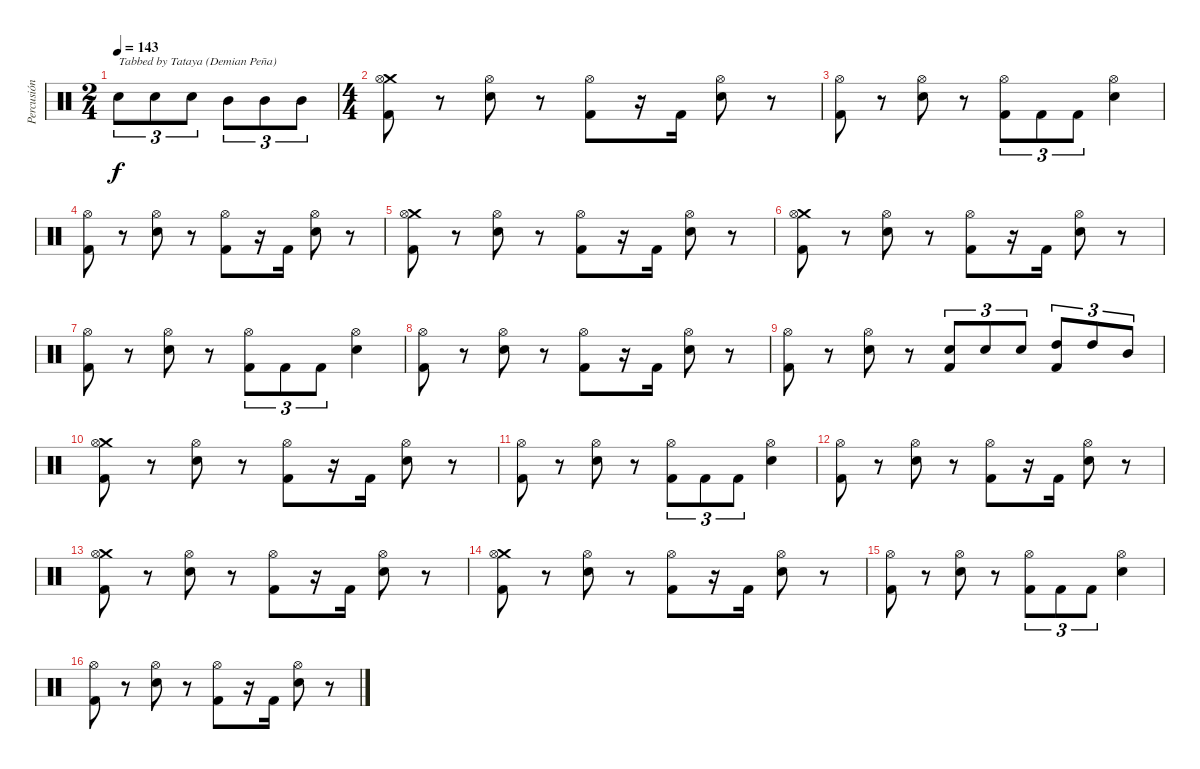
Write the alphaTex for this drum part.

\track ("Percusión" "Percusión") {instrument percussion}
\staff {score}
\articulation defaults
\ts (2 4)
\tempo 143
\clef neutral
\ks c "Electric Snare (hit)".8{tu (3 2) txt "Tabbed by Tataya (Demian Peña)" dy f} "Electric Snare (hit)".8{tu (3 2)} "Electric Snare (hit)".8{tu (3 2)} "Mid Tom (hit)".8{tu (3 2)} "Mid Tom (hit)".8{tu (3 2)} "Mid Tom (hit)".8{tu (3 2)}
|
\ts (4 4)
("Crash medium (hit)" "Hi-Hat (open)" "Kick (hit) 2").8 r.8 ("Hi-Hat (open)" "Electric Snare (hit)").8 r.8 ("Hi-Hat (open)" "Kick (hit) 2").8 r.16 "Kick (hit) 2".16 ("Electric Snare (hit)" "Hi-Hat (open)").8 r.8 |
("Hi-Hat (open)" "Kick (hit) 2").8 r.8 ("Hi-Hat (open)" "Electric Snare (hit)").8 r.8 ("Hi-Hat (open)" "Kick (hit) 2").8{tu (3 2)} "Kick (hit) 2".8{tu (3 2)} "Kick (hit) 2".8{tu (3 2)} ("Hi-Hat (open)" "Electric Snare (hit)").4 |
("Hi-Hat (open)" "Kick (hit) 2").8 r.8 ("Hi-Hat (open)" "Electric Snare (hit)").8 r.8 ("Hi-Hat (open)" "Kick (hit) 2").8 r.16 "Kick (hit) 2".16 ("Electric Snare (hit)" "Hi-Hat (open)").8 r.8 |
("Crash medium (hit)" "Hi-Hat (open)" "Kick (hit) 2").8 r.8 ("Hi-Hat (open)" "Electric Snare (hit)").8 r.8 ("Hi-Hat (open)" "Kick (hit) 2").8 r.16 "Kick (hit) 2".16 ("Electric Snare (hit)" "Hi-Hat (open)").8 r.8 |
("Crash medium (hit)" "Hi-Hat (open)" "Kick (hit) 2").8 r.8 ("Hi-Hat (open)" "Electric Snare (hit)").8 r.8 ("Hi-Hat (open)" "Kick (hit) 2").8 r.16 "Kick (hit) 2".16 ("Electric Snare (hit)" "Hi-Hat (open)").8 r.8 |
("Hi-Hat (open)" "Kick (hit) 2").8 r.8 ("Hi-Hat (open)" "Electric Snare (hit)").8 r.8 ("Hi-Hat (open)" "Kick (hit) 2").8{tu (3 2)} "Kick (hit) 2".8{tu (3 2)} "Kick (hit) 2".8{tu (3 2)} ("Hi-Hat (open)" "Electric Snare (hit)").4 |
("Hi-Hat (open)" "Kick (hit) 2").8 r.8 ("Hi-Hat (open)" "Electric Snare (hit)").8 r.8 ("Hi-Hat (open)" "Kick (hit) 2").8 r.16 "Kick (hit) 2".16 ("Electric Snare (hit)" "Hi-Hat (open)").8 r.8 |
("Hi-Hat (open)" "Kick (hit) 2").8 r.8 ("Hi-Hat (open)" "Electric Snare (hit)").8 r.8 ("Electric Snare (hit)" "Kick (hit) 2").8{tu (3 2)} "Electric Snare (hit)".8{tu (3 2)} "Electric Snare (hit)".8{tu (3 2)} ("High Tom (hit)" "Kick (hit) 2").8{tu (3 2)} "High Tom (hit)".8{tu (3 2)} "Mid Tom (hit)".8{tu (3 2)} |
("Crash medium (hit)" "Hi-Hat (open)" "Kick (hit) 2").8 r.8 ("Hi-Hat (open)" "Electric Snare (hit)").8 r.8 ("Hi-Hat (open)" "Kick (hit) 2").8 r.16 "Kick (hit) 2".16 ("Electric Snare (hit)" "Hi-Hat (open)").8 r.8 |
("Hi-Hat (open)" "Kick (hit) 2").8 r.8 ("Hi-Hat (open)" "Electric Snare (hit)").8 r.8 ("Hi-Hat (open)" "Kick (hit) 2").8{tu (3 2)} "Kick (hit) 2".8{tu (3 2)} "Kick (hit) 2".8{tu (3 2)} ("Hi-Hat (open)" "Electric Snare (hit)").4 |
("Hi-Hat (open)" "Kick (hit) 2").8 r.8 ("Hi-Hat (open)" "Electric Snare (hit)").8 r.8 ("Hi-Hat (open)" "Kick (hit) 2").8 r.16 "Kick (hit) 2".16 ("Electric Snare (hit)" "Hi-Hat (open)").8 r.8 |
("Crash medium (hit)" "Hi-Hat (open)" "Kick (hit) 2").8 r.8 ("Hi-Hat (open)" "Electric Snare (hit)").8 r.8 ("Hi-Hat (open)" "Kick (hit) 2").8 r.16 "Kick (hit) 2".16 ("Electric Snare (hit)" "Hi-Hat (open)").8 r.8 |
("Crash medium (hit)" "Hi-Hat (open)" "Kick (hit) 2").8 r.8 ("Hi-Hat (open)" "Electric Snare (hit)").8 r.8 ("Hi-Hat (open)" "Kick (hit) 2").8 r.16 "Kick (hit) 2".16 ("Electric Snare (hit)" "Hi-Hat (open)").8 r.8 |
("Hi-Hat (open)" "Kick (hit) 2").8 r.8 ("Hi-Hat (open)" "Electric Snare (hit)").8 r.8 ("Hi-Hat (open)" "Kick (hit) 2").8{tu (3 2)} "Kick (hit) 2".8{tu (3 2)} "Kick (hit) 2".8{tu (3 2)} ("Hi-Hat (open)" "Electric Snare (hit)").4 |
("Hi-Hat (open)" "Kick (hit) 2").8 r.8 ("Hi-Hat (open)" "Electric Snare (hit)").8 r.8 ("Hi-Hat (open)" "Kick (hit) 2").8 r.16 "Kick (hit) 2".16 ("Electric Snare (hit)" "Hi-Hat (open)").8 r.8
